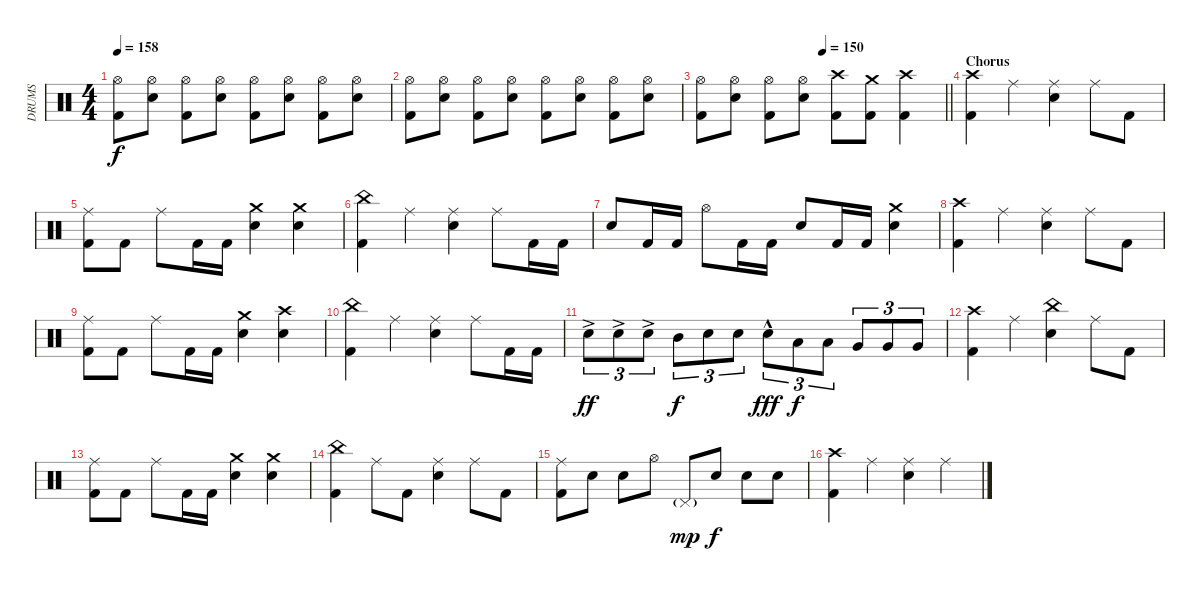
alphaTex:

\track ("DRUMS" "DRUMS") {instrument percussion}
\staff {score}
\articulation defaults
\ts (4 4)
\tempo 158
\clef neutral
\ks c
("Hi-Hat (open)" "Kick (hit) 2").8{dy f} ("Hi-Hat (open)" "Snare (hit) 2").8 ("Hi-Hat (open)" "Kick (hit) 2").8 ("Hi-Hat (open)" "Snare (hit) 2").8 ("Hi-Hat (open)" "Kick (hit) 2").8 ("Hi-Hat (open)" "Snare (hit) 2").8 ("Hi-Hat (open)" "Kick (hit) 2").8 ("Hi-Hat (open)" "Snare (hit) 2").8 |
("Hi-Hat (open)" "Kick (hit) 2").8 ("Hi-Hat (open)" "Snare (hit) 2").8 ("Hi-Hat (open)" "Kick (hit) 2").8 ("Hi-Hat (open)" "Snare (hit) 2").8 ("Hi-Hat (open)" "Kick (hit) 2").8 ("Hi-Hat (open)" "Snare (hit) 2").8 ("Hi-Hat (open)" "Kick (hit) 2").8 ("Hi-Hat (open)" "Snare (hit) 2").8 |
\tempo (150 0.5)
\barLineRight lightlight
("Hi-Hat (open)" "Kick (hit) 2").8 ("Hi-Hat (open)" "Snare (hit) 2").8 ("Hi-Hat (open)" "Kick (hit) 2").8 ("Hi-Hat (open)" "Snare (hit) 2").8 ("Crash high (hit)" "Kick (hit) 2").8 ("Crash medium (hit)" "Kick (hit) 2").8 ("Crash high (hit)" "Kick (hit) 2").4 |
\section ("" "Chorus")
("Crash high (hit)" "Kick (hit) 2").4 "Ride (middle)".4 ("Ride (middle)" "Snare (hit) 2").4 "Ride (middle)".8 "Kick (hit) 2".8 |
("Ride (middle)" "Kick (hit) 2").8 "Kick (hit) 2".8 "Ride (middle)".8 "Kick (hit) 2".16 "Kick (hit) 2".16 ("Crash medium (hit)" "Snare (hit) 2").4 ("Crash medium (hit)" "Snare (hit) 2").4 |
("China (hit)" "Kick (hit) 2").4 "Ride (middle)".4 ("Ride (middle)" "Snare (hit) 2").4 "Ride (middle)".8 "Kick (hit) 2".16 "Kick (hit) 2".16 |
"Snare (hit) 2".8 "Kick (hit) 2".16 "Kick (hit) 2".16 "Hi-Hat (open)".8 "Kick (hit) 2".16 "Kick (hit) 2".16 "Snare (hit) 2".8 "Kick (hit) 2".16 "Kick (hit) 2".16 ("Crash medium (hit)" "Snare (hit) 2").4 |
("Crash high (hit)" "Kick (hit) 2").4 "Ride (middle)".4 ("Ride (middle)" "Snare (hit) 2").4 "Ride (middle)".8 "Kick (hit) 2".8 |
("Ride (middle)" "Kick (hit) 2").8 "Kick (hit) 2".8 "Ride (middle)".8 "Kick (hit) 2".16 "Kick (hit) 2".16 ("Crash medium (hit)" "Snare (hit) 2").4 ("Crash high (hit)" "Snare (hit) 2").4 |
("China (hit)" "Kick (hit) 2").4 "Ride (middle)".4 ("Ride (middle)" "Snare (hit) 2").4 "Ride (middle)".8 "Kick (hit) 2".16 "Kick (hit) 2".16 |
"Snare (hit) 2"{ac}.8{tu (3 2) dy ff} "Snare (hit) 2"{ac}.8{tu (3 2)} "Snare (hit) 2"{ac}.8{tu (3 2)} "Mid Tom (hit)".8{tu (3 2) dy f} "Snare (hit) 2".8{tu (3 2)} "Snare (hit) 2".8{tu (3 2)} "Snare (hit) 2"{hac}.8{tu (3 2) dy fff} "Low Tom (hit)".8{tu (3 2) dy f} "Low Tom (hit)".8{tu (3 2)} "Very Low Tom (hit)".8{tu (3 2)} "Very Low Tom (hit)".8{tu (3 2)} "Very Low Tom (hit)".8{tu (3 2)} |
("Crash high (hit)" "Kick (hit) 2").4 "Ride (middle)".4 ("China (hit)" "Snare (hit) 2").4 "Ride (middle)".8 "Kick (hit) 2".8 |
("Ride (middle)" "Kick (hit) 2").8 "Kick (hit) 2".8 "Ride (middle)".8 "Kick (hit) 2".16 "Kick (hit) 2".16 ("Crash medium (hit)" "Snare (hit) 2").4 ("Crash medium (hit)" "Snare (hit) 2").4 |
("China (hit)" "Kick (hit) 2").4 "Ride (middle)".8 "Kick (hit) 2".8 ("Ride (middle)" "Snare (hit) 2").4 "Ride (middle)".8 "Kick (hit) 2".8 |
("Ride (middle)" "Kick (hit) 2").8 "Snare (hit) 2".8 "Snare (hit) 2".8 "Hi-Hat (open)".8 "Pedal Hi-Hat (hit)"{g}.8{dy mp} "Snare (hit) 2".8{dy f} "Snare (hit) 2".8 "Snare (hit) 2".8 |
("Crash high (hit)" "Kick (hit) 2").4 "Ride (middle)".4 ("Ride (middle)" "Snare (hit) 2").4 "Ride (middle)".4
